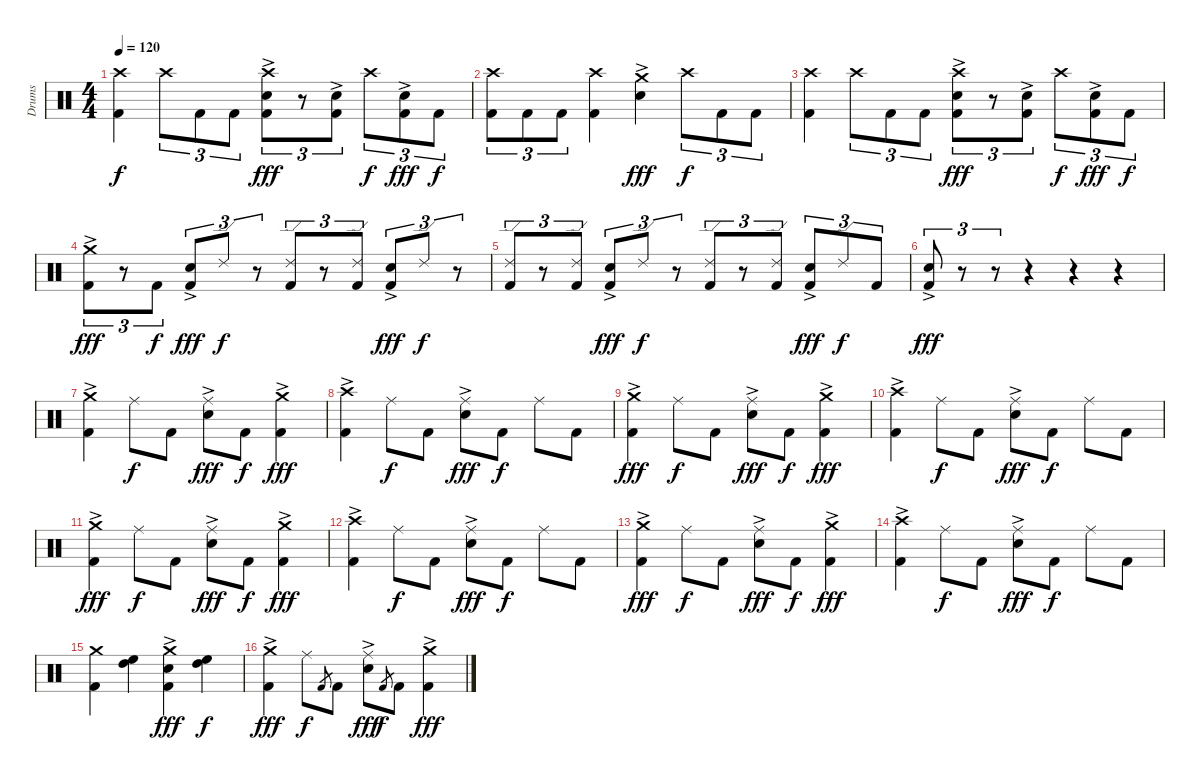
\track ("Drums" "Drums") {instrument percussion}
\staff {score}
\articulation defaults
\ts (4 4)
\tempo 120
\clef neutral
\ks c
("Crash high (hit)" "Kick (hit) 2").4{dy f} "Crash high (hit)".8{tu (3 2)} "Kick (hit) 2".8{tu (3 2)} "Kick (hit) 2".8{tu (3 2)} ("Crash high (hit)" "Electric Snare (hit)"{ac} "Kick (hit) 2").8{tu (3 2) dy fff} r.8{tu (3 2)} ("Electric Snare (hit)"{ac} "Kick (hit) 2").8{tu (3 2)} "Crash high (hit)".8{tu (3 2) dy f} ("Electric Snare (hit)"{ac} "Kick (hit) 2").8{tu (3 2) dy fff} "Kick (hit) 2".8{tu (3 2) dy f} |
("Crash high (hit)" "Kick (hit) 2").8{tu (3 2)} "Kick (hit) 2".8{tu (3 2)} "Kick (hit) 2".8{tu (3 2)} ("Crash high (hit)" "Kick (hit) 2").4 ("Crash medium (hit)"{ac} "Electric Snare (hit)"{ac}).4{dy fff} "Crash high (hit)".8{tu (3 2) dy f} "Kick (hit) 2".8{tu (3 2)} "Kick (hit) 2".8{tu (3 2)} |
("Crash high (hit)" "Kick (hit) 2").4 "Crash high (hit)".8{tu (3 2)} "Kick (hit) 2".8{tu (3 2)} "Kick (hit) 2".8{tu (3 2)} ("Crash high (hit)" "Electric Snare (hit)"{ac} "Kick (hit) 2").8{tu (3 2) dy fff} r.8{tu (3 2)} ("Electric Snare (hit)"{ac} "Kick (hit) 2").8{tu (3 2)} "Crash high (hit)".8{tu (3 2) dy f} ("Electric Snare (hit)"{ac} "Kick (hit) 2").8{tu (3 2) dy fff} "Kick (hit) 2".8{tu (3 2) dy f} |
("Crash medium (hit)"{ac} "Kick (hit) 2").8{tu (3 2) dy fff} r.8{tu (3 2)} "Kick (hit) 2".8{tu (3 2) dy f} ("Electric Snare (hit)"{ac} "Kick (hit) 2").8{tu (3 2) dy fff} "Ride (edge) 2".8{tu (3 2) dy f} r.8{tu (3 2)} ("Ride (edge) 2" "Kick (hit) 2").8{tu (3 2)} r.8{tu (3 2)} ("Ride (edge) 2" "Kick (hit) 2").8{tu (3 2)} ("Electric Snare (hit)"{ac} "Kick (hit) 2").8{tu (3 2) dy fff} "Ride (edge) 2".8{tu (3 2) dy f} r.8{tu (3 2)} |
("Ride (edge) 2" "Kick (hit) 2").8{tu (3 2)} r.8{tu (3 2)} ("Ride (edge) 2" "Kick (hit) 2").8{tu (3 2)} ("Electric Snare (hit)"{ac} "Kick (hit) 2").8{tu (3 2) dy fff} "Ride (edge) 2".8{tu (3 2) dy f} r.8{tu (3 2)} ("Ride (edge) 2" "Kick (hit) 2").8{tu (3 2)} r.8{tu (3 2)} ("Ride (edge) 2" "Kick (hit) 2").8{tu (3 2)} ("Electric Snare (hit)"{ac} "Kick (hit) 2").8{tu (3 2) dy fff} "Ride (edge) 2".8{tu (3 2) dy f} "Kick (hit) 2".8{tu (3 2)} |
("Electric Snare (hit)"{ac} "Kick (hit) 2").8{tu (3 2) dy fff} r.8{tu (3 2)} r.8{tu (3 2)} r.4 r.4 r.4 |
("Crash medium (hit)"{ac} "Kick (hit) 2").4 "Ride (middle)".8{dy f} "Kick (hit) 2".8 ("Ride (middle)" "Electric Snare (hit)"{ac}).8{dy fff} "Kick (hit) 2".8{dy f} ("Crash medium (hit)"{ac} "Kick (hit) 2").4{dy fff} |
("Crash high (hit)"{ac} "Kick (hit) 2").4 "Ride (middle)".8{dy f} "Kick (hit) 2".8 ("Ride (middle)" "Electric Snare (hit)"{ac}).8{dy fff} "Kick (hit) 2".8{dy f} "Ride (middle)".8 "Kick (hit) 2".8 |
("Crash medium (hit)"{ac} "Kick (hit) 2").4{dy fff} "Ride (middle)".8{dy f} "Kick (hit) 2".8 ("Ride (middle)" "Electric Snare (hit)"{ac}).8{dy fff} "Kick (hit) 2".8{dy f} ("Crash medium (hit)"{ac} "Kick (hit) 2").4{dy fff} |
("Crash high (hit)"{ac} "Kick (hit) 2").4 "Ride (middle)".8{dy f} "Kick (hit) 2".8 ("Ride (middle)" "Electric Snare (hit)"{ac}).8{dy fff} "Kick (hit) 2".8{dy f} "Ride (middle)".8 "Kick (hit) 2".8 |
("Crash medium (hit)"{ac} "Kick (hit) 2").4{dy fff} "Ride (middle)".8{dy f} "Kick (hit) 2".8 ("Ride (middle)" "Electric Snare (hit)"{ac}).8{dy fff} "Kick (hit) 2".8{dy f} ("Crash medium (hit)"{ac} "Kick (hit) 2").4{dy fff} |
("Crash high (hit)"{ac} "Kick (hit) 2").4 "Ride (middle)".8{dy f} "Kick (hit) 2".8 ("Ride (middle)" "Electric Snare (hit)"{ac}).8{dy fff} "Kick (hit) 2".8{dy f} "Ride (middle)".8 "Kick (hit) 2".8 |
("Crash medium (hit)"{ac} "Kick (hit) 2").4{dy fff} "Ride (middle)".8{dy f} "Kick (hit) 2".8 ("Ride (middle)" "Electric Snare (hit)"{ac}).8{dy fff} "Kick (hit) 2".8{dy f} ("Crash medium (hit)"{ac} "Kick (hit) 2").4{dy fff} |
("Crash high (hit)"{ac} "Kick (hit) 2").4 "Ride (middle)".8{dy f} "Kick (hit) 2".8 ("Ride (middle)" "Electric Snare (hit)"{ac}).8{dy fff} "Kick (hit) 2".8{dy f} "Ride (middle)".8 "Kick (hit) 2".8 |
("Crash medium (hit)" "Kick (hit) 2").4 ("High Floor Tom (hit)" "High Tom (hit)").4 ("Crash medium (hit)" "Electric Snare (hit)"{ac} "Kick (hit) 2").4{dy fff} ("High Floor Tom (hit)" "High Tom (hit)").4{dy f} |
("Crash medium (hit)"{ac} "Kick (hit) 2").4{dy fff} "Ride (middle)".8{dy f} "Kick (hit) 2".8{gr} "Kick (hit) 2".8 ("Ride (middle)" "Electric Snare (hit)"{ac}).8{dy fff} "Kick (hit) 2".8{gr dy f} "Kick (hit) 2".8 ("Crash medium (hit)"{ac} "Kick (hit) 2").4{dy fff}
